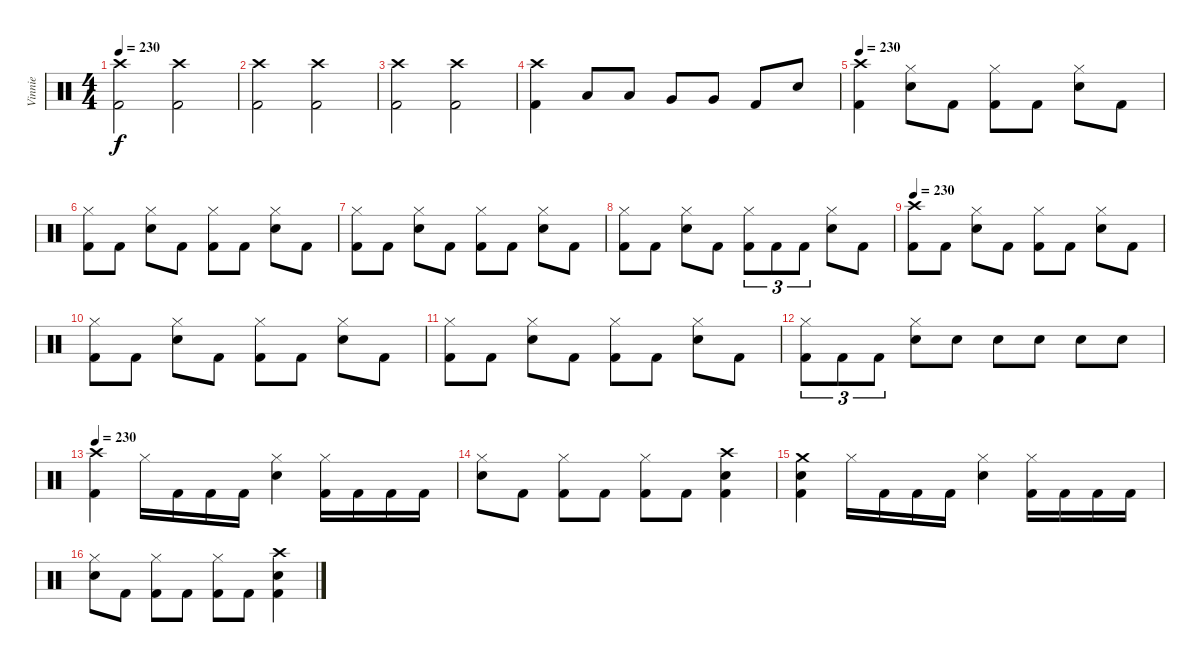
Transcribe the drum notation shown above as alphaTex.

\track ("Vinnie" "Vinnie") {instrument percussion}
\staff {score}
\articulation defaults
\ts (4 4)
\tempo 230
\clef neutral
\ks c
("Crash high (hit)" "Kick (hit) 2").2{dy f} ("Crash high (hit)" "Kick (hit) 2").2 |
("Crash high (hit)" "Kick (hit) 2").2 ("Crash high (hit)" "Kick (hit) 2").2 |
("Crash high (hit)" "Kick (hit) 2").2 ("Crash high (hit)" "Kick (hit) 2").2 |
("Crash high (hit)" "Kick (hit) 2").4 "Low Tom (hit)".8 "Low Tom (hit)".8 "Very Low Tom (hit)".8 "Very Low Tom (hit)".8 "Kick (hit) 2".8 "Electric Snare (hit)".8 |
\tempo 230
("Crash high (hit)" "Kick (hit) 2").4 ("Hi-Hat (closed)" "Electric Snare (hit)").8 "Kick (hit) 2".8 ("Hi-Hat (closed)" "Kick (hit) 2").8 "Kick (hit) 2".8 ("Hi-Hat (closed)" "Electric Snare (hit)").8 "Kick (hit) 2".8 |
("Hi-Hat (closed)" "Kick (hit) 2").8 "Kick (hit) 2".8 ("Hi-Hat (closed)" "Electric Snare (hit)").8 "Kick (hit) 2".8 ("Hi-Hat (closed)" "Kick (hit) 2").8 "Kick (hit) 2".8 ("Hi-Hat (closed)" "Electric Snare (hit)").8 "Kick (hit) 2".8 |
("Hi-Hat (closed)" "Kick (hit) 2").8 "Kick (hit) 2".8 ("Hi-Hat (closed)" "Electric Snare (hit)").8 "Kick (hit) 2".8 ("Hi-Hat (closed)" "Kick (hit) 2").8 "Kick (hit) 2".8 ("Hi-Hat (closed)" "Electric Snare (hit)").8 "Kick (hit) 2".8 |
("Hi-Hat (closed)" "Kick (hit) 2").8 "Kick (hit) 2".8 ("Hi-Hat (closed)" "Electric Snare (hit)").8 "Kick (hit) 2".8 ("Hi-Hat (closed)" "Kick (hit) 2").8{tu (3 2)} "Kick (hit) 2".8{tu (3 2)} "Kick (hit) 2".8{tu (3 2)} ("Hi-Hat (closed)" "Electric Snare (hit)").8 "Kick (hit) 2".8 |
\tempo 230
("Crash high (hit)" "Kick (hit) 2").8 "Kick (hit) 2".8 ("Hi-Hat (closed)" "Electric Snare (hit)").8 "Kick (hit) 2".8 ("Hi-Hat (closed)" "Kick (hit) 2").8 "Kick (hit) 2".8 ("Hi-Hat (closed)" "Electric Snare (hit)").8 "Kick (hit) 2".8 |
("Hi-Hat (closed)" "Kick (hit) 2").8 "Kick (hit) 2".8 ("Hi-Hat (closed)" "Electric Snare (hit)").8 "Kick (hit) 2".8 ("Hi-Hat (closed)" "Kick (hit) 2").8 "Kick (hit) 2".8 ("Hi-Hat (closed)" "Electric Snare (hit)").8 "Kick (hit) 2".8 |
("Hi-Hat (closed)" "Kick (hit) 2").8 "Kick (hit) 2".8 ("Hi-Hat (closed)" "Electric Snare (hit)").8 "Kick (hit) 2".8 ("Hi-Hat (closed)" "Kick (hit) 2").8 "Kick (hit) 2".8 ("Hi-Hat (closed)" "Electric Snare (hit)").8 "Kick (hit) 2".8 |
("Hi-Hat (closed)" "Kick (hit) 2").8{tu (3 2)} "Kick (hit) 2".8{tu (3 2)} "Kick (hit) 2".8{tu (3 2)} ("Hi-Hat (closed)" "Electric Snare (hit)").8 "Electric Snare (hit)".8 "Electric Snare (hit)".8 "Electric Snare (hit)".8 "Electric Snare (hit)".8 "Electric Snare (hit)".8 |
\tempo 230
("Crash high (hit)" "Kick (hit) 2").4 "Hi-Hat (closed)".16 "Kick (hit) 2".16 "Kick (hit) 2".16 "Kick (hit) 2".16 ("Hi-Hat (closed)" "Electric Snare (hit)").4 ("Hi-Hat (closed)" "Kick (hit) 2").16 "Kick (hit) 2".16 "Kick (hit) 2".16 "Kick (hit) 2".16 |
("Hi-Hat (closed)" "Electric Snare (hit)").8 "Kick (hit) 2".8 ("Hi-Hat (closed)" "Kick (hit) 2").8 "Kick (hit) 2".8 ("Hi-Hat (closed)" "Kick (hit) 2").8 "Kick (hit) 2".8 ("Crash high (hit)" "Electric Snare (hit)" "Kick (hit) 2").4 |
("Crash medium (hit)" "Electric Snare (hit)" "Kick (hit) 2").4 "Hi-Hat (closed)".16 "Kick (hit) 2".16 "Kick (hit) 2".16 "Kick (hit) 2".16 ("Hi-Hat (closed)" "Electric Snare (hit)").4 ("Hi-Hat (closed)" "Kick (hit) 2").16 "Kick (hit) 2".16 "Kick (hit) 2".16 "Kick (hit) 2".16 |
("Hi-Hat (closed)" "Electric Snare (hit)").8 "Kick (hit) 2".8 ("Hi-Hat (closed)" "Kick (hit) 2").8 "Kick (hit) 2".8 ("Hi-Hat (closed)" "Kick (hit) 2").8 "Kick (hit) 2".8 ("Crash high (hit)" "Electric Snare (hit)" "Kick (hit) 2").4
